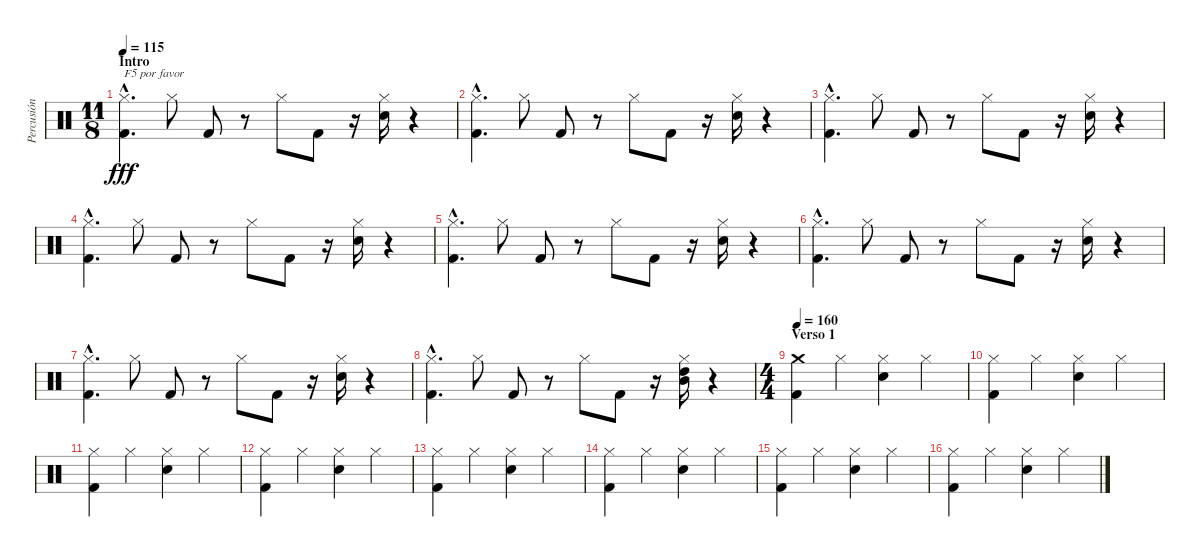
\track ("Percusión" "Percusión") {instrument percussion}
\staff {score}
\articulation defaults
\ts (11 8)
\section ("" "Intro")
\tempo 115
\clef neutral
\ks c
("Hi-Hat (closed)"{hac} "Kick (hit) 2"{hac}).4{d txt "F5 por favor" dy fff} "Hi-Hat (closed)".8 "Kick (hit) 2".8 r.8 "Hi-Hat (closed)".8 "Kick (hit) 2".8 r.16 ("Hi-Hat (closed)" "Snare (hit) 2").16 r.4 |
("Hi-Hat (closed)"{hac} "Kick (hit) 2"{hac}).4{d} "Hi-Hat (closed)".8 "Kick (hit) 2".8 r.8 "Hi-Hat (closed)".8 "Kick (hit) 2".8 r.16 ("Hi-Hat (closed)" "Snare (hit) 2").16 r.4 |
("Hi-Hat (closed)"{hac} "Kick (hit) 2"{hac}).4{d} "Hi-Hat (closed)".8 "Kick (hit) 2".8 r.8 "Hi-Hat (closed)".8 "Kick (hit) 2".8 r.16 ("Hi-Hat (closed)" "Snare (hit) 2").16 r.4 |
("Hi-Hat (closed)"{hac} "Kick (hit) 2"{hac}).4{d} "Hi-Hat (closed)".8 "Kick (hit) 2".8 r.8 "Hi-Hat (closed)".8 "Kick (hit) 2".8 r.16 ("Hi-Hat (closed)" "Snare (hit) 2").16 r.4 |
("Hi-Hat (closed)"{hac} "Kick (hit) 2"{hac}).4{d} "Hi-Hat (closed)".8 "Kick (hit) 2".8 r.8 "Hi-Hat (closed)".8 "Kick (hit) 2".8 r.16 ("Hi-Hat (closed)" "Snare (hit) 2").16 r.4 |
("Hi-Hat (closed)"{hac} "Kick (hit) 2"{hac}).4{d} "Hi-Hat (closed)".8 "Kick (hit) 2".8 r.8 "Hi-Hat (closed)".8 "Kick (hit) 2".8 r.16 ("Hi-Hat (closed)" "Snare (hit) 2").16 r.4 |
("Hi-Hat (closed)"{hac} "Kick (hit) 2"{hac}).4{d} "Hi-Hat (closed)".8 "Kick (hit) 2".8 r.8 "Hi-Hat (closed)".8 "Kick (hit) 2".8 r.16 ("Hi-Hat (closed)" "Snare (hit) 2").16 r.4 |
("Hi-Hat (closed)"{hac} "Kick (hit) 2"{hac}).4{d} "Hi-Hat (closed)".8 "Kick (hit) 2".8 r.8 "Hi-Hat (closed)".8 "Kick (hit) 2".8 r.16 ("Hi-Hat (closed)" "Mid Tom (hit)" "High Tom (hit)").16 r.4 |
\ts (4 4)
\section ("" "Verso 1")
\tempo 160
("Crash medium (hit)" "Kick (hit) 2").4 "Hi-Hat (closed)".4 ("Hi-Hat (closed)" "Snare (hit) 2").4 "Hi-Hat (closed)".4 |
("Hi-Hat (closed)" "Kick (hit) 2").4 "Hi-Hat (closed)".4 ("Hi-Hat (closed)" "Snare (hit) 2").4 "Hi-Hat (closed)".4 |
("Hi-Hat (closed)" "Kick (hit) 2").4 "Hi-Hat (closed)".4 ("Hi-Hat (closed)" "Snare (hit) 2").4 "Hi-Hat (closed)".4 |
("Hi-Hat (closed)" "Kick (hit) 2").4 "Hi-Hat (closed)".4 ("Hi-Hat (closed)" "Snare (hit) 2").4 "Hi-Hat (closed)".4 |
("Hi-Hat (closed)" "Kick (hit) 2").4 "Hi-Hat (closed)".4 ("Hi-Hat (closed)" "Snare (hit) 2").4 "Hi-Hat (closed)".4 |
("Hi-Hat (closed)" "Kick (hit) 2").4 "Hi-Hat (closed)".4 ("Hi-Hat (closed)" "Snare (hit) 2").4 "Hi-Hat (closed)".4 |
("Hi-Hat (closed)" "Kick (hit) 2").4 "Hi-Hat (closed)".4 ("Hi-Hat (closed)" "Snare (hit) 2").4 "Hi-Hat (closed)".4 |
("Hi-Hat (closed)" "Kick (hit) 2").4 "Hi-Hat (closed)".4 ("Hi-Hat (closed)" "Snare (hit) 2").4 "Hi-Hat (closed)".4
